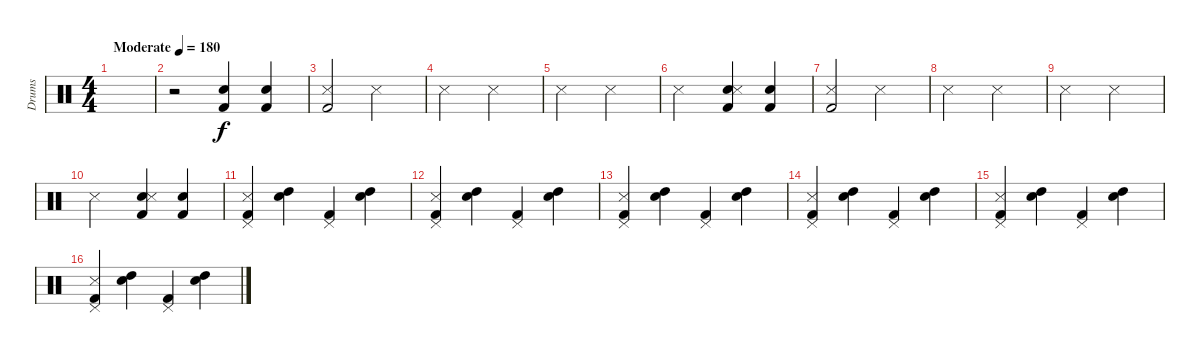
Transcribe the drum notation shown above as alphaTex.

\track ("Drums" "Drums") {instrument percussion}
\staff {score}
\articulation defaults
\ts (4 4)
\tempo (180 "Moderate")
\clef neutral
\ks c
|
r.2 ("Kick (hit) 2" "Snare (hit) 2").4 ("Kick (hit) 2" "Snare (hit) 2").4 |
("Kick (hit) 2" "Snare (side stick) 3").2 "Snare (side stick) 3".2 |
"Snare (side stick) 3".2 "Snare (side stick) 3".2 |
"Snare (side stick) 3".2 "Snare (side stick) 3".2 |
"Snare (side stick) 3".2 ("Kick (hit) 2" "Snare (hit) 2" "Snare (side stick) 3").4 ("Kick (hit) 2" "Snare (hit) 2").4 |
("Kick (hit) 2" "Snare (side stick) 3").2 "Snare (side stick) 3".2 |
"Snare (side stick) 3".2 "Snare (side stick) 3".2 |
"Snare (side stick) 3".2 "Snare (side stick) 3".2 |
"Snare (side stick) 3".2 ("Kick (hit) 2" "Snare (hit) 2" "Snare (side stick) 3").4 ("Kick (hit) 2" "Snare (hit) 2").4 |
("Kick (hit) 2" "Pedal Hi-Hat (hit)" "Snare (side stick) 3").4 ("Snare (hit) 2" "High Tom (hit)").4 ("Kick (hit) 2" "Pedal Hi-Hat (hit)").4 ("Snare (hit) 2" "High Tom (hit)").4 |
("Kick (hit) 2" "Pedal Hi-Hat (hit)" "Snare (side stick) 3").4 ("Snare (hit) 2" "High Tom (hit)").4 ("Kick (hit) 2" "Pedal Hi-Hat (hit)").4 ("Snare (hit) 2" "High Tom (hit)").4 |
("Kick (hit) 2" "Pedal Hi-Hat (hit)" "Snare (side stick) 3").4 ("Snare (hit) 2" "High Tom (hit)").4 ("Kick (hit) 2" "Pedal Hi-Hat (hit)").4 ("Snare (hit) 2" "High Tom (hit)").4 |
("Kick (hit) 2" "Pedal Hi-Hat (hit)" "Snare (side stick) 3").4 ("Snare (hit) 2" "High Tom (hit)").4 ("Kick (hit) 2" "Pedal Hi-Hat (hit)").4 ("Snare (hit) 2" "High Tom (hit)").4 |
("Kick (hit) 2" "Pedal Hi-Hat (hit)" "Snare (side stick) 3").4 ("Snare (hit) 2" "High Tom (hit)").4 ("Kick (hit) 2" "Pedal Hi-Hat (hit)").4 ("Snare (hit) 2" "High Tom (hit)").4 |
("Kick (hit) 2" "Pedal Hi-Hat (hit)" "Snare (side stick) 3").4 ("Snare (hit) 2" "High Tom (hit)").4 ("Kick (hit) 2" "Pedal Hi-Hat (hit)").4 ("Snare (hit) 2" "High Tom (hit)").4
